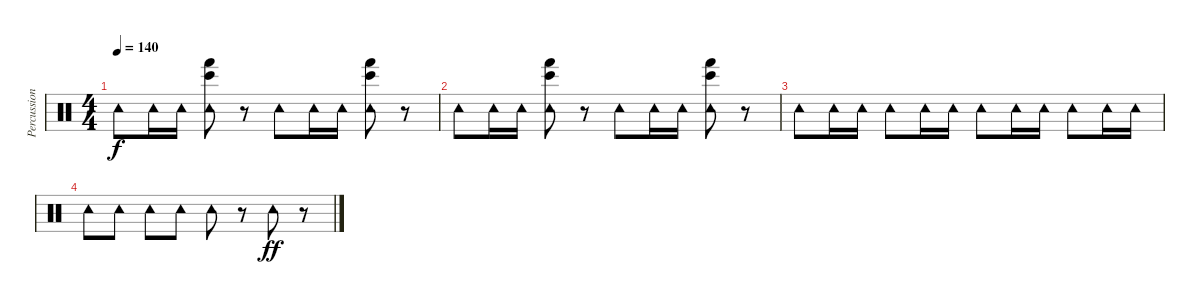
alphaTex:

\track ("Percussion" "Percussion") {instrument percussion}
\staff {score}
\articulation defaults
\ts (4 4)
\tempo 140
\clef neutral
\ks c "Tambourine (hit)".8{dy f} "Tambourine (hit)".16 "Tambourine (hit)".16
("Tambourine (hit)" "Bongo High (hit)" "Hand (hit)").8 r.8 "Tambourine (hit)".8 "Tambourine (hit)".16 "Tambourine (hit)".16 ("Tambourine (hit)" "Bongo High (hit)" "Hand (hit)").8 r.8 |
"Tambourine (hit)".8 "Tambourine (hit)".16 "Tambourine (hit)".16 ("Tambourine (hit)" "Bongo High (hit)" "Hand (hit)").8 r.8 "Tambourine (hit)".8 "Tambourine (hit)".16 "Tambourine (hit)".16 ("Tambourine (hit)" "Bongo High (hit)" "Hand (hit)").8 r.8 |
"Tambourine (hit)".8 "Tambourine (hit)".16 "Tambourine (hit)".16 "Tambourine (hit)".8 "Tambourine (hit)".16 "Tambourine (hit)".16 "Tambourine (hit)".8 "Tambourine (hit)".16 "Tambourine (hit)".16 "Tambourine (hit)".8 "Tambourine (hit)".16 "Tambourine (hit)".16 |
"Tambourine (hit)".8 "Tambourine (hit)".8 "Tambourine (hit)".8 "Tambourine (hit)".8 "Tambourine (hit)".8 r.8 "Tambourine (hit)".8{dy ff} r.8
